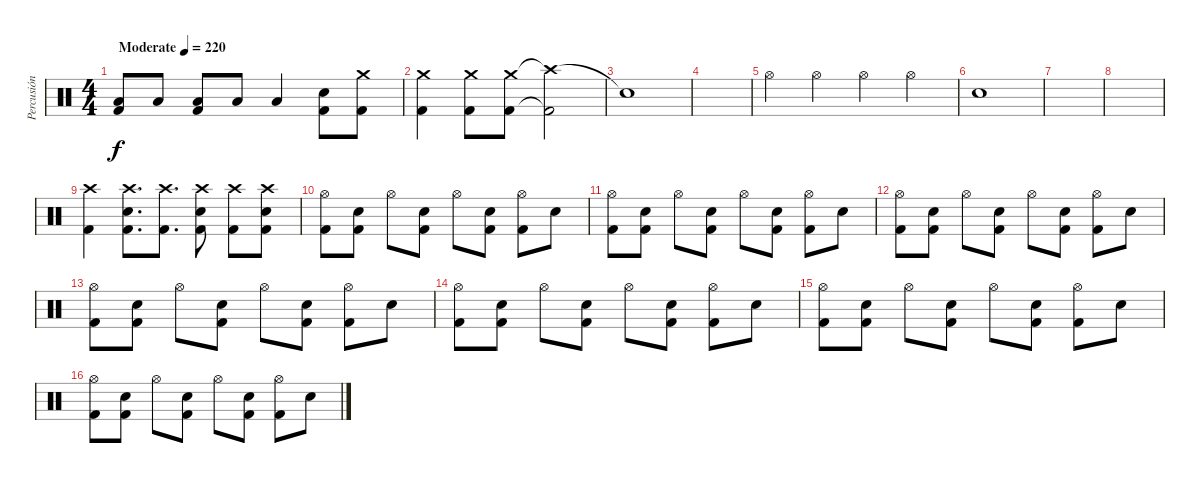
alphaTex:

\track ("Percusión" "Percusión") {instrument percussion}
\staff {score}
\articulation defaults
\ts (4 4)
\tempo (220 "Moderate")
\clef neutral
\ks c
("Low Floor Tom (hit)" "Kick (hit) 2").8{dy f} "Low Floor Tom (hit)".8 ("Low Floor Tom (hit)" "Kick (hit) 2").8 "Low Floor Tom (hit)".8 "Low Tom (hit)".4 ("Electric Snare (hit)" "Kick (hit) 2").8 ("Crash medium (hit)" "Kick (hit) 2").8 |
("Crash medium (hit)" "Kick (hit) 2").4 ("Crash medium (hit)" "Kick (hit) 2").8 ("Crash medium (hit)" "Kick (hit) 2").8 ("Crash high (hit)"{t} "Kick (hit) 2"{t}).2 |
"Snare (hit)"{t}.1 |
|
"Hi-Hat (open)".4 "Hi-Hat (open)".4 "Hi-Hat (open)".4 "Hi-Hat (open)".4 |
"Electric Snare (hit)".1 |
|
|
("Crash high (hit)" "Kick (hit) 2").4 ("Crash high (hit)" "Electric Snare (hit)" "Kick (hit) 2").8{d} ("Crash high (hit)" "Kick (hit) 2").8{d} ("Crash high (hit)" "Electric Snare (hit)" "Kick (hit) 2").8 ("Crash high (hit)" "Kick (hit) 2").8 ("Crash high (hit)" "Electric Snare (hit)" "Kick (hit) 2").8 |
("Hi-Hat (open)" "Kick (hit) 2").8 ("Electric Snare (hit)" "Kick (hit) 2").8 "Hi-Hat (open)".8 ("Electric Snare (hit)" "Kick (hit) 2").8 "Hi-Hat (open)".8 ("Electric Snare (hit)" "Kick (hit) 2").8 ("Hi-Hat (open)" "Kick (hit) 2").8 "Electric Snare (hit)".8 |
("Hi-Hat (open)" "Kick (hit) 2").8 ("Electric Snare (hit)" "Kick (hit) 2").8 "Hi-Hat (open)".8 ("Electric Snare (hit)" "Kick (hit) 2").8 "Hi-Hat (open)".8 ("Electric Snare (hit)" "Kick (hit) 2").8 ("Hi-Hat (open)" "Kick (hit) 2").8 "Electric Snare (hit)".8 |
("Hi-Hat (open)" "Kick (hit) 2").8 ("Electric Snare (hit)" "Kick (hit) 2").8 "Hi-Hat (open)".8 ("Electric Snare (hit)" "Kick (hit) 2").8 "Hi-Hat (open)".8 ("Electric Snare (hit)" "Kick (hit) 2").8 ("Hi-Hat (open)" "Kick (hit) 2").8 "Electric Snare (hit)".8 |
("Hi-Hat (open)" "Kick (hit) 2").8 ("Electric Snare (hit)" "Kick (hit) 2").8 "Hi-Hat (open)".8 ("Electric Snare (hit)" "Kick (hit) 2").8 "Hi-Hat (open)".8 ("Electric Snare (hit)" "Kick (hit) 2").8 ("Hi-Hat (open)" "Kick (hit) 2").8 "Electric Snare (hit)".8 |
("Hi-Hat (open)" "Kick (hit) 2").8 ("Electric Snare (hit)" "Kick (hit) 2").8 "Hi-Hat (open)".8 ("Electric Snare (hit)" "Kick (hit) 2").8 "Hi-Hat (open)".8 ("Electric Snare (hit)" "Kick (hit) 2").8 ("Hi-Hat (open)" "Kick (hit) 2").8 "Electric Snare (hit)".8 |
("Hi-Hat (open)" "Kick (hit) 2").8 ("Electric Snare (hit)" "Kick (hit) 2").8 "Hi-Hat (open)".8 ("Electric Snare (hit)" "Kick (hit) 2").8 "Hi-Hat (open)".8 ("Electric Snare (hit)" "Kick (hit) 2").8 ("Hi-Hat (open)" "Kick (hit) 2").8 "Electric Snare (hit)".8 |
("Hi-Hat (open)" "Kick (hit) 2").8 ("Electric Snare (hit)" "Kick (hit) 2").8 "Hi-Hat (open)".8 ("Electric Snare (hit)" "Kick (hit) 2").8 "Hi-Hat (open)".8 ("Electric Snare (hit)" "Kick (hit) 2").8 ("Hi-Hat (open)" "Kick (hit) 2").8 "Electric Snare (hit)".8
